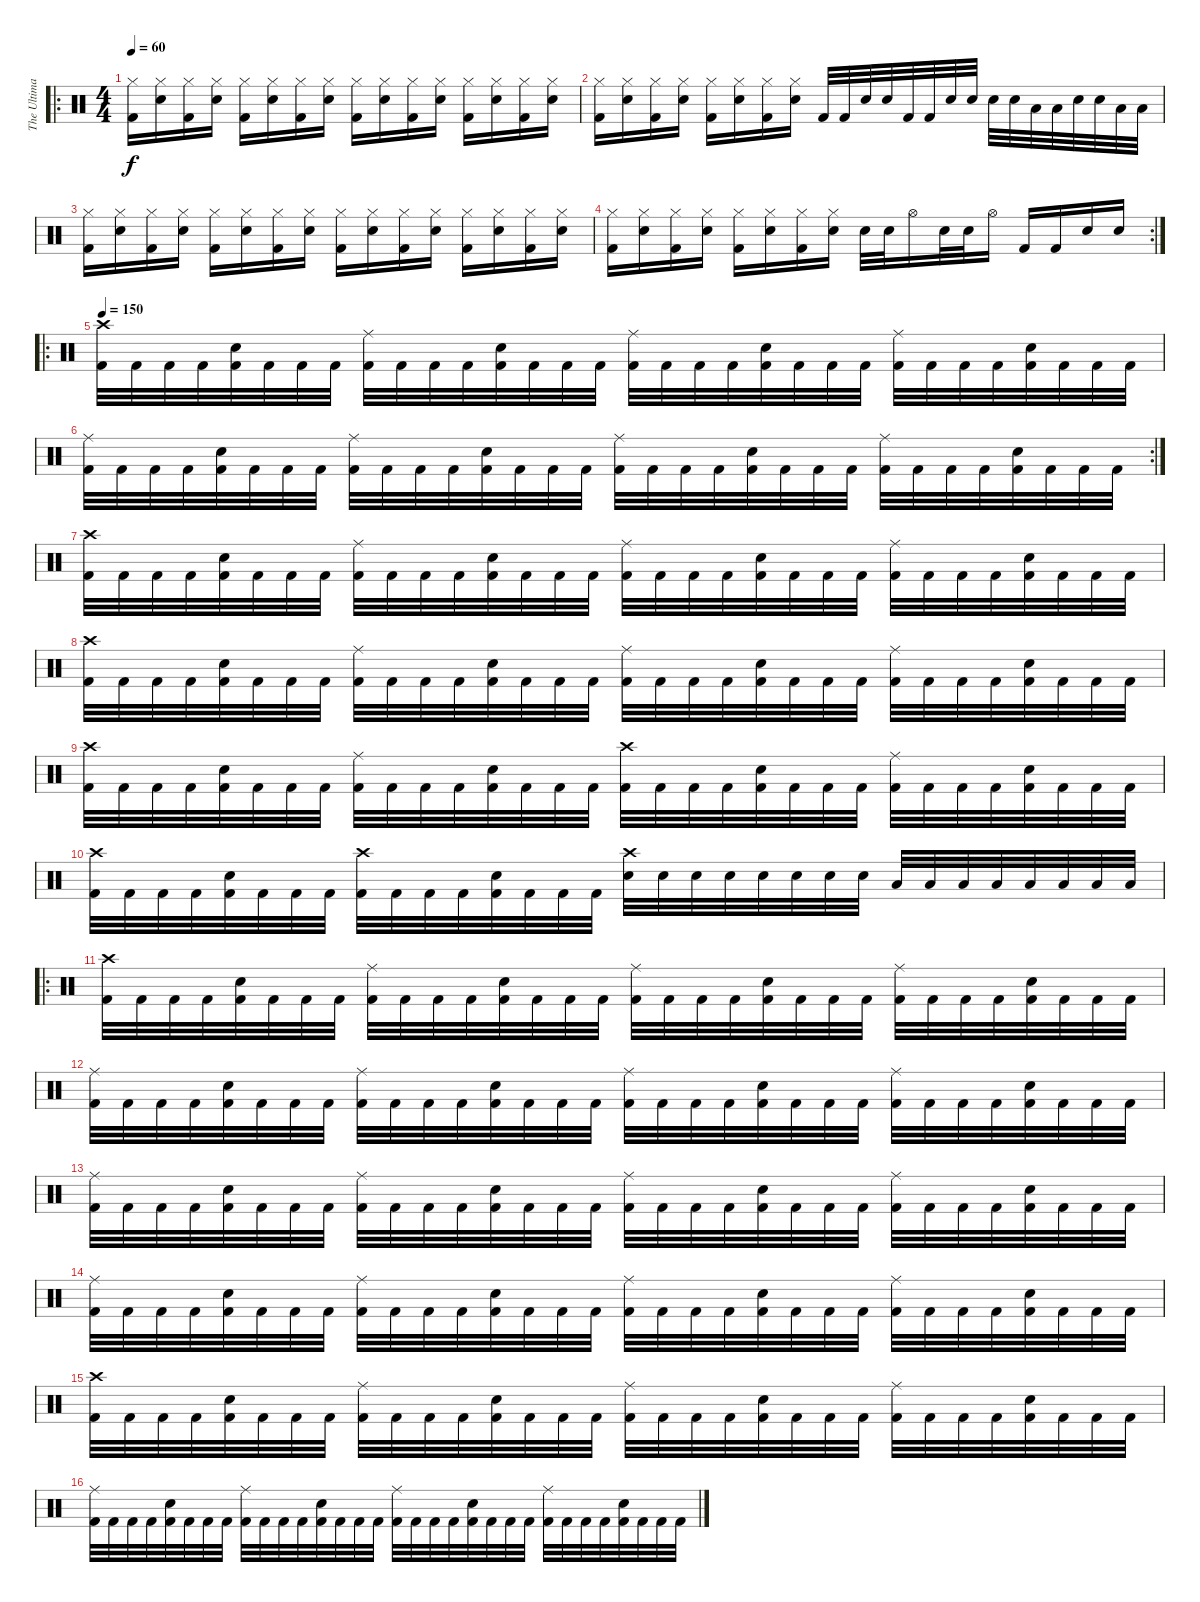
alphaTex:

\track ("The Ultimate hero" "The Ultima") {instrument percussion}
\staff {score}
\articulation defaults
\ro
\ts (4 4)
\tempo 60
\clef neutral
\ks c
("Hi-Hat (closed)" "Kick (hit) 2").16{dy f} ("Hi-Hat (closed)" "Snare (hit) 2").16 ("Hi-Hat (closed)" "Kick (hit) 2").16 ("Hi-Hat (closed)" "Snare (hit) 2").16 ("Hi-Hat (closed)" "Kick (hit) 2").16 ("Hi-Hat (closed)" "Snare (hit) 2").16 ("Hi-Hat (closed)" "Kick (hit) 2").16 ("Hi-Hat (closed)" "Snare (hit) 2").16 ("Hi-Hat (closed)" "Kick (hit) 2").16 ("Hi-Hat (closed)" "Snare (hit) 2").16 ("Hi-Hat (closed)" "Kick (hit) 2").16 ("Hi-Hat (closed)" "Snare (hit) 2").16 ("Hi-Hat (closed)" "Kick (hit) 2").16 ("Hi-Hat (closed)" "Snare (hit) 2").16 ("Hi-Hat (closed)" "Kick (hit) 2").16 ("Hi-Hat (closed)" "Snare (hit) 2").16 |
("Hi-Hat (closed)" "Kick (hit) 2").16 ("Hi-Hat (closed)" "Snare (hit) 2").16 ("Hi-Hat (closed)" "Kick (hit) 2").16 ("Hi-Hat (closed)" "Snare (hit) 2").16 ("Hi-Hat (closed)" "Kick (hit) 2").16 ("Hi-Hat (closed)" "Snare (hit) 2").16 ("Hi-Hat (closed)" "Kick (hit) 2").16 ("Hi-Hat (closed)" "Snare (hit) 2").16 "Kick (hit) 2".32 "Kick (hit) 2".32 "Snare (hit) 2".32 "Snare (hit) 2".32 "Kick (hit) 2".32 "Kick (hit) 2".32 "Snare (hit) 2".32 "Snare (hit) 2".32 "Snare (hit) 2".32 "Snare (hit) 2".32 "Low Tom (hit)".32 "Low Tom (hit)".32 "Snare (hit) 2".32 "Snare (hit) 2".32 "Low Tom (hit)".32 "Low Tom (hit)".32 |
("Hi-Hat (closed)" "Kick (hit) 2").16 ("Hi-Hat (closed)" "Snare (hit) 2").16 ("Hi-Hat (closed)" "Kick (hit) 2").16 ("Hi-Hat (closed)" "Snare (hit) 2").16 ("Hi-Hat (closed)" "Kick (hit) 2").16 ("Hi-Hat (closed)" "Snare (hit) 2").16 ("Hi-Hat (closed)" "Kick (hit) 2").16 ("Hi-Hat (closed)" "Snare (hit) 2").16 ("Hi-Hat (closed)" "Kick (hit) 2").16 ("Hi-Hat (closed)" "Snare (hit) 2").16 ("Hi-Hat (closed)" "Kick (hit) 2").16 ("Hi-Hat (closed)" "Snare (hit) 2").16 ("Hi-Hat (closed)" "Kick (hit) 2").16 ("Hi-Hat (closed)" "Snare (hit) 2").16 ("Hi-Hat (closed)" "Kick (hit) 2").16 ("Hi-Hat (closed)" "Snare (hit) 2").16 |
\rc 2
("Hi-Hat (closed)" "Kick (hit) 2").16 ("Hi-Hat (closed)" "Snare (hit) 2").16 ("Hi-Hat (closed)" "Kick (hit) 2").16 ("Hi-Hat (closed)" "Snare (hit) 2").16 ("Hi-Hat (closed)" "Kick (hit) 2").16 ("Hi-Hat (closed)" "Snare (hit) 2").16 ("Hi-Hat (closed)" "Kick (hit) 2").16 ("Hi-Hat (closed)" "Snare (hit) 2").16 "Snare (hit) 2".32 "Snare (hit) 2".32 "Hi-Hat (open)".16 "Snare (hit) 2".32 "Snare (hit) 2".32 "Hi-Hat (open)".16 "Kick (hit) 2".16 "Kick (hit) 2".16 "Snare (hit) 2".16 "Snare (hit) 2".16 |
\ro
\tempo 150
("Crash high (hit)" "Kick (hit) 2").32 "Kick (hit) 2".32 "Kick (hit) 2".32 "Kick (hit) 2".32 ("Snare (hit) 2" "Kick (hit) 2").32 "Kick (hit) 2".32 "Kick (hit) 2".32 "Kick (hit) 2".32 ("Ride (middle)" "Kick (hit) 2").32 "Kick (hit) 2".32 "Kick (hit) 2".32 "Kick (hit) 2".32 ("Snare (hit) 2" "Kick (hit) 2").32 "Kick (hit) 2".32 "Kick (hit) 2".32 "Kick (hit) 2".32 ("Ride (middle)" "Kick (hit) 2").32 "Kick (hit) 2".32 "Kick (hit) 2".32 "Kick (hit) 2".32 ("Snare (hit) 2" "Kick (hit) 2").32 "Kick (hit) 2".32 "Kick (hit) 2".32 "Kick (hit) 2".32 ("Ride (middle)" "Kick (hit) 2").32 "Kick (hit) 2".32 "Kick (hit) 2".32 "Kick (hit) 2".32 ("Snare (hit) 2" "Kick (hit) 2").32 "Kick (hit) 2".32 "Kick (hit) 2".32 "Kick (hit) 2".32 |
\rc 2
("Ride (middle)" "Kick (hit) 2").32 "Kick (hit) 2".32 "Kick (hit) 2".32 "Kick (hit) 2".32 ("Snare (hit) 2" "Kick (hit) 2").32 "Kick (hit) 2".32 "Kick (hit) 2".32 "Kick (hit) 2".32 ("Ride (middle)" "Kick (hit) 2").32 "Kick (hit) 2".32 "Kick (hit) 2".32 "Kick (hit) 2".32 ("Snare (hit) 2" "Kick (hit) 2").32 "Kick (hit) 2".32 "Kick (hit) 2".32 "Kick (hit) 2".32 ("Ride (middle)" "Kick (hit) 2").32 "Kick (hit) 2".32 "Kick (hit) 2".32 "Kick (hit) 2".32 ("Snare (hit) 2" "Kick (hit) 2").32 "Kick (hit) 2".32 "Kick (hit) 2".32 "Kick (hit) 2".32 ("Ride (middle)" "Kick (hit) 2").32 "Kick (hit) 2".32 "Kick (hit) 2".32 "Kick (hit) 2".32 ("Snare (hit) 2" "Kick (hit) 2").32 "Kick (hit) 2".32 "Kick (hit) 2".32 "Kick (hit) 2".32 |
("Crash high (hit)" "Kick (hit) 2").32 "Kick (hit) 2".32 "Kick (hit) 2".32 "Kick (hit) 2".32 ("Snare (hit) 2" "Kick (hit) 2").32 "Kick (hit) 2".32 "Kick (hit) 2".32 "Kick (hit) 2".32 ("Ride (middle)" "Kick (hit) 2").32 "Kick (hit) 2".32 "Kick (hit) 2".32 "Kick (hit) 2".32 ("Snare (hit) 2" "Kick (hit) 2").32 "Kick (hit) 2".32 "Kick (hit) 2".32 "Kick (hit) 2".32 ("Ride (middle)" "Kick (hit) 2").32 "Kick (hit) 2".32 "Kick (hit) 2".32 "Kick (hit) 2".32 ("Snare (hit) 2" "Kick (hit) 2").32 "Kick (hit) 2".32 "Kick (hit) 2".32 "Kick (hit) 2".32 ("Ride (middle)" "Kick (hit) 2").32 "Kick (hit) 2".32 "Kick (hit) 2".32 "Kick (hit) 2".32 ("Snare (hit) 2" "Kick (hit) 2").32 "Kick (hit) 2".32 "Kick (hit) 2".32 "Kick (hit) 2".32 |
("Crash high (hit)" "Kick (hit) 2").32 "Kick (hit) 2".32 "Kick (hit) 2".32 "Kick (hit) 2".32 ("Snare (hit) 2" "Kick (hit) 2").32 "Kick (hit) 2".32 "Kick (hit) 2".32 "Kick (hit) 2".32 ("Ride (middle)" "Kick (hit) 2").32 "Kick (hit) 2".32 "Kick (hit) 2".32 "Kick (hit) 2".32 ("Snare (hit) 2" "Kick (hit) 2").32 "Kick (hit) 2".32 "Kick (hit) 2".32 "Kick (hit) 2".32 ("Ride (middle)" "Kick (hit) 2").32 "Kick (hit) 2".32 "Kick (hit) 2".32 "Kick (hit) 2".32 ("Snare (hit) 2" "Kick (hit) 2").32 "Kick (hit) 2".32 "Kick (hit) 2".32 "Kick (hit) 2".32 ("Ride (middle)" "Kick (hit) 2").32 "Kick (hit) 2".32 "Kick (hit) 2".32 "Kick (hit) 2".32 ("Snare (hit) 2" "Kick (hit) 2").32 "Kick (hit) 2".32 "Kick (hit) 2".32 "Kick (hit) 2".32 |
("Crash high (hit)" "Kick (hit) 2").32 "Kick (hit) 2".32 "Kick (hit) 2".32 "Kick (hit) 2".32 ("Snare (hit) 2" "Kick (hit) 2").32 "Kick (hit) 2".32 "Kick (hit) 2".32 "Kick (hit) 2".32 ("Ride (middle)" "Kick (hit) 2").32 "Kick (hit) 2".32 "Kick (hit) 2".32 "Kick (hit) 2".32 ("Snare (hit) 2" "Kick (hit) 2").32 "Kick (hit) 2".32 "Kick (hit) 2".32 "Kick (hit) 2".32 ("Crash high (hit)" "Kick (hit) 2").32 "Kick (hit) 2".32 "Kick (hit) 2".32 "Kick (hit) 2".32 ("Snare (hit) 2" "Kick (hit) 2").32 "Kick (hit) 2".32 "Kick (hit) 2".32 "Kick (hit) 2".32 ("Ride (middle)" "Kick (hit) 2").32 "Kick (hit) 2".32 "Kick (hit) 2".32 "Kick (hit) 2".32 ("Snare (hit) 2" "Kick (hit) 2").32 "Kick (hit) 2".32 "Kick (hit) 2".32 "Kick (hit) 2".32 |
("Crash high (hit)" "Kick (hit) 2").32 "Kick (hit) 2".32 "Kick (hit) 2".32 "Kick (hit) 2".32 ("Snare (hit) 2" "Kick (hit) 2").32 "Kick (hit) 2".32 "Kick (hit) 2".32 "Kick (hit) 2".32 ("Crash high (hit)" "Kick (hit) 2").32 "Kick (hit) 2".32 "Kick (hit) 2".32 "Kick (hit) 2".32 ("Snare (hit) 2" "Kick (hit) 2").32 "Kick (hit) 2".32 "Kick (hit) 2".32 "Kick (hit) 2".32 ("Crash high (hit)" "Snare (hit) 2").32 "Snare (hit) 2".32 "Snare (hit) 2".32 "Snare (hit) 2".32 "Snare (hit) 2".32 "Snare (hit) 2".32 "Snare (hit) 2".32 "Snare (hit) 2".32 "Low Tom (hit)".32 "Low Tom (hit)".32 "Low Tom (hit)".32 "Low Tom (hit)".32 "Low Tom (hit)".32 "Low Tom (hit)".32 "Low Tom (hit)".32 "Low Tom (hit)".32 |
\ro
("Crash high (hit)" "Kick (hit) 2").32 "Kick (hit) 2".32 "Kick (hit) 2".32 "Kick (hit) 2".32 ("Snare (hit) 2" "Kick (hit) 2").32 "Kick (hit) 2".32 "Kick (hit) 2".32 "Kick (hit) 2".32 ("Ride (middle)" "Kick (hit) 2").32 "Kick (hit) 2".32 "Kick (hit) 2".32 "Kick (hit) 2".32 ("Snare (hit) 2" "Kick (hit) 2").32 "Kick (hit) 2".32 "Kick (hit) 2".32 "Kick (hit) 2".32 ("Ride (middle)" "Kick (hit) 2").32 "Kick (hit) 2".32 "Kick (hit) 2".32 "Kick (hit) 2".32 ("Snare (hit) 2" "Kick (hit) 2").32 "Kick (hit) 2".32 "Kick (hit) 2".32 "Kick (hit) 2".32 ("Ride (middle)" "Kick (hit) 2").32 "Kick (hit) 2".32 "Kick (hit) 2".32 "Kick (hit) 2".32 ("Snare (hit) 2" "Kick (hit) 2").32 "Kick (hit) 2".32 "Kick (hit) 2".32 "Kick (hit) 2".32 |
("Ride (middle)" "Kick (hit) 2").32 "Kick (hit) 2".32 "Kick (hit) 2".32 "Kick (hit) 2".32 ("Snare (hit) 2" "Kick (hit) 2").32 "Kick (hit) 2".32 "Kick (hit) 2".32 "Kick (hit) 2".32 ("Ride (middle)" "Kick (hit) 2").32 "Kick (hit) 2".32 "Kick (hit) 2".32 "Kick (hit) 2".32 ("Snare (hit) 2" "Kick (hit) 2").32 "Kick (hit) 2".32 "Kick (hit) 2".32 "Kick (hit) 2".32 ("Ride (middle)" "Kick (hit) 2").32 "Kick (hit) 2".32 "Kick (hit) 2".32 "Kick (hit) 2".32 ("Snare (hit) 2" "Kick (hit) 2").32 "Kick (hit) 2".32 "Kick (hit) 2".32 "Kick (hit) 2".32 ("Ride (middle)" "Kick (hit) 2").32 "Kick (hit) 2".32 "Kick (hit) 2".32 "Kick (hit) 2".32 ("Snare (hit) 2" "Kick (hit) 2").32 "Kick (hit) 2".32 "Kick (hit) 2".32 "Kick (hit) 2".32 |
("Ride (middle)" "Kick (hit) 2").32 "Kick (hit) 2".32 "Kick (hit) 2".32 "Kick (hit) 2".32 ("Snare (hit) 2" "Kick (hit) 2").32 "Kick (hit) 2".32 "Kick (hit) 2".32 "Kick (hit) 2".32 ("Ride (middle)" "Kick (hit) 2").32 "Kick (hit) 2".32 "Kick (hit) 2".32 "Kick (hit) 2".32 ("Snare (hit) 2" "Kick (hit) 2").32 "Kick (hit) 2".32 "Kick (hit) 2".32 "Kick (hit) 2".32 ("Ride (middle)" "Kick (hit) 2").32 "Kick (hit) 2".32 "Kick (hit) 2".32 "Kick (hit) 2".32 ("Snare (hit) 2" "Kick (hit) 2").32 "Kick (hit) 2".32 "Kick (hit) 2".32 "Kick (hit) 2".32 ("Ride (middle)" "Kick (hit) 2").32 "Kick (hit) 2".32 "Kick (hit) 2".32 "Kick (hit) 2".32 ("Snare (hit) 2" "Kick (hit) 2").32 "Kick (hit) 2".32 "Kick (hit) 2".32 "Kick (hit) 2".32 |
("Ride (middle)" "Kick (hit) 2").32 "Kick (hit) 2".32 "Kick (hit) 2".32 "Kick (hit) 2".32 ("Snare (hit) 2" "Kick (hit) 2").32 "Kick (hit) 2".32 "Kick (hit) 2".32 "Kick (hit) 2".32 ("Ride (middle)" "Kick (hit) 2").32 "Kick (hit) 2".32 "Kick (hit) 2".32 "Kick (hit) 2".32 ("Snare (hit) 2" "Kick (hit) 2").32 "Kick (hit) 2".32 "Kick (hit) 2".32 "Kick (hit) 2".32 ("Ride (middle)" "Kick (hit) 2").32 "Kick (hit) 2".32 "Kick (hit) 2".32 "Kick (hit) 2".32 ("Snare (hit) 2" "Kick (hit) 2").32 "Kick (hit) 2".32 "Kick (hit) 2".32 "Kick (hit) 2".32 ("Ride (middle)" "Kick (hit) 2").32 "Kick (hit) 2".32 "Kick (hit) 2".32 "Kick (hit) 2".32 ("Snare (hit) 2" "Kick (hit) 2").32 "Kick (hit) 2".32 "Kick (hit) 2".32 "Kick (hit) 2".32 |
("Crash high (hit)" "Kick (hit) 2").32 "Kick (hit) 2".32 "Kick (hit) 2".32 "Kick (hit) 2".32 ("Snare (hit) 2" "Kick (hit) 2").32 "Kick (hit) 2".32 "Kick (hit) 2".32 "Kick (hit) 2".32 ("Ride (middle)" "Kick (hit) 2").32 "Kick (hit) 2".32 "Kick (hit) 2".32 "Kick (hit) 2".32 ("Snare (hit) 2" "Kick (hit) 2").32 "Kick (hit) 2".32 "Kick (hit) 2".32 "Kick (hit) 2".32 ("Ride (middle)" "Kick (hit) 2").32 "Kick (hit) 2".32 "Kick (hit) 2".32 "Kick (hit) 2".32 ("Snare (hit) 2" "Kick (hit) 2").32 "Kick (hit) 2".32 "Kick (hit) 2".32 "Kick (hit) 2".32 ("Ride (middle)" "Kick (hit) 2").32 "Kick (hit) 2".32 "Kick (hit) 2".32 "Kick (hit) 2".32 ("Snare (hit) 2" "Kick (hit) 2").32 "Kick (hit) 2".32 "Kick (hit) 2".32 "Kick (hit) 2".32 |
("Ride (middle)" "Kick (hit) 2").32 "Kick (hit) 2".32 "Kick (hit) 2".32 "Kick (hit) 2".32 ("Snare (hit) 2" "Kick (hit) 2").32 "Kick (hit) 2".32 "Kick (hit) 2".32 "Kick (hit) 2".32 ("Ride (middle)" "Kick (hit) 2").32 "Kick (hit) 2".32 "Kick (hit) 2".32 "Kick (hit) 2".32 ("Snare (hit) 2" "Kick (hit) 2").32 "Kick (hit) 2".32 "Kick (hit) 2".32 "Kick (hit) 2".32 ("Ride (middle)" "Kick (hit) 2").32 "Kick (hit) 2".32 "Kick (hit) 2".32 "Kick (hit) 2".32 ("Snare (hit) 2" "Kick (hit) 2").32 "Kick (hit) 2".32 "Kick (hit) 2".32 "Kick (hit) 2".32 ("Ride (middle)" "Kick (hit) 2").32 "Kick (hit) 2".32 "Kick (hit) 2".32 "Kick (hit) 2".32 ("Snare (hit) 2" "Kick (hit) 2").32 "Kick (hit) 2".32 "Kick (hit) 2".32 "Kick (hit) 2".32
